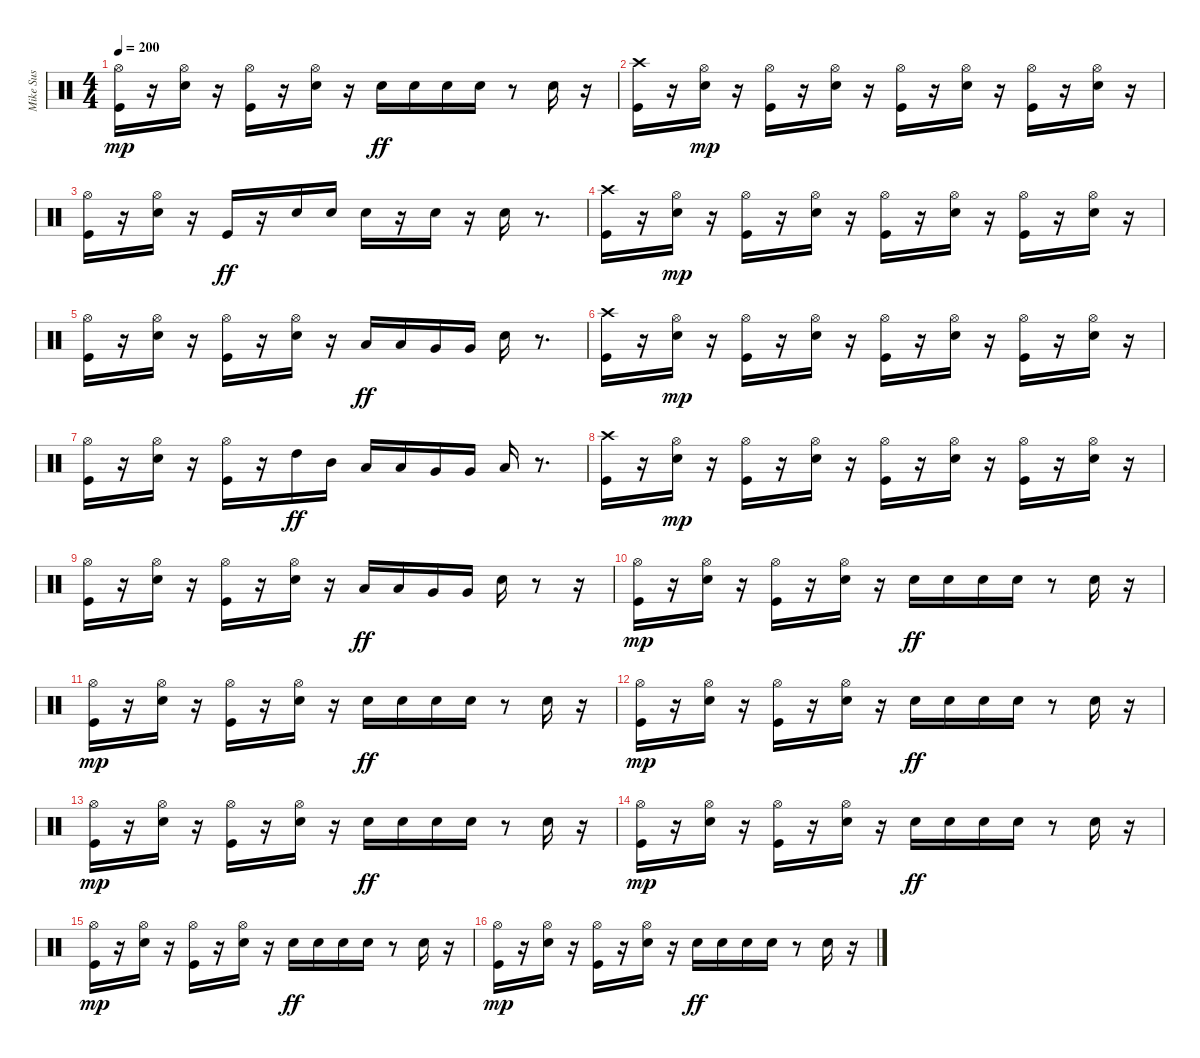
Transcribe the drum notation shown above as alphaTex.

\track ("Mike Sus" "Mike Sus") {instrument percussion}
\staff {score}
\articulation defaults
\ts (4 4)
\tempo 200
\clef neutral
\ks c
("Kick (hit)" "Hi-Hat (open)").16{dy mp} r.16 ("Snare (hit) 2" "Hi-Hat (open)").16 r.16 ("Kick (hit)" "Hi-Hat (open)").16 r.16 ("Snare (hit) 2" "Hi-Hat (open)").16 r.16 "Snare (hit) 2".16{dy ff} "Snare (hit) 2".16 "Snare (hit) 2".16 "Snare (hit) 2".16 r.8 "Snare (hit) 2".16 r.16 |
("Kick (hit)" "Crash high (hit)").16 r.16 ("Snare (hit) 2" "Hi-Hat (open)").16{dy mp} r.16 ("Kick (hit)" "Hi-Hat (open)").16 r.16 ("Snare (hit) 2" "Hi-Hat (open)").16 r.16 ("Kick (hit)" "Hi-Hat (open)").16 r.16 ("Snare (hit) 2" "Hi-Hat (open)").16 r.16 ("Kick (hit)" "Hi-Hat (open)").16 r.16 ("Snare (hit) 2" "Hi-Hat (open)").16 r.16 |
("Kick (hit)" "Hi-Hat (open)").16 r.16 ("Snare (hit) 2" "Hi-Hat (open)").16 r.16 "Kick (hit)".16{dy ff} r.16 "Snare (hit) 2".16 "Snare (hit) 2".16 "Snare (hit) 2".16 r.16 "Snare (hit) 2".16 r.16 "Snare (hit) 2".16 r.8{d} |
("Kick (hit)" "Crash high (hit)").16 r.16 ("Snare (hit) 2" "Hi-Hat (open)").16{dy mp} r.16 ("Kick (hit)" "Hi-Hat (open)").16 r.16 ("Snare (hit) 2" "Hi-Hat (open)").16 r.16 ("Kick (hit)" "Hi-Hat (open)").16 r.16 ("Snare (hit) 2" "Hi-Hat (open)").16 r.16 ("Kick (hit)" "Hi-Hat (open)").16 r.16 ("Snare (hit) 2" "Hi-Hat (open)").16 r.16 |
("Kick (hit)" "Hi-Hat (open)").16 r.16 ("Snare (hit) 2" "Hi-Hat (open)").16 r.16 ("Kick (hit)" "Hi-Hat (open)").16 r.16 ("Snare (hit) 2" "Hi-Hat (open)").16 r.16 "Low Tom (hit)".16{dy ff} "Low Tom (hit)".16 "Very Low Tom (hit)".16 "Very Low Tom (hit)".16 "Snare (hit) 2".16 r.8{d} |
("Kick (hit)" "Crash high (hit)").16 r.16 ("Snare (hit) 2" "Hi-Hat (open)").16{dy mp} r.16 ("Kick (hit)" "Hi-Hat (open)").16 r.16 ("Snare (hit) 2" "Hi-Hat (open)").16 r.16 ("Kick (hit)" "Hi-Hat (open)").16 r.16 ("Snare (hit) 2" "Hi-Hat (open)").16 r.16 ("Kick (hit)" "Hi-Hat (open)").16 r.16 ("Snare (hit) 2" "Hi-Hat (open)").16 r.16 |
("Kick (hit)" "Hi-Hat (open)").16 r.16 ("Snare (hit) 2" "Hi-Hat (open)").16 r.16 ("Kick (hit)" "Hi-Hat (open)").16 r.16 "High Tom (hit)".16{dy ff} "Mid Tom (hit)".16 "Low Tom (hit)".16 "Low Tom (hit)".16 "Very Low Tom (hit)".16 "Very Low Tom (hit)".16 "Low Floor Tom (hit)".16 r.8{d} |
("Kick (hit)" "Crash high (hit)").16 r.16 ("Snare (hit) 2" "Hi-Hat (open)").16{dy mp} r.16 ("Kick (hit)" "Hi-Hat (open)").16 r.16 ("Snare (hit) 2" "Hi-Hat (open)").16 r.16 ("Kick (hit)" "Hi-Hat (open)").16 r.16 ("Snare (hit) 2" "Hi-Hat (open)").16 r.16 ("Kick (hit)" "Hi-Hat (open)").16 r.16 ("Snare (hit) 2" "Hi-Hat (open)").16 r.16 |
("Kick (hit)" "Hi-Hat (open)").16 r.16 ("Snare (hit) 2" "Hi-Hat (open)").16 r.16 ("Kick (hit)" "Hi-Hat (open)").16 r.16 ("Snare (hit) 2" "Hi-Hat (open)").16 r.16 "Low Tom (hit)".16{dy ff} "Low Tom (hit)".16 "Very Low Tom (hit)".16 "Very Low Tom (hit)".16 "Snare (hit) 2".16 r.8 r.16 |
("Kick (hit)" "Hi-Hat (open)").16{dy mp} r.16 ("Snare (hit) 2" "Hi-Hat (open)").16 r.16 ("Kick (hit)" "Hi-Hat (open)").16 r.16 ("Snare (hit) 2" "Hi-Hat (open)").16 r.16 "Snare (hit) 2".16{dy ff} "Snare (hit) 2".16 "Snare (hit) 2".16 "Snare (hit) 2".16 r.8 "Snare (hit) 2".16 r.16 |
("Kick (hit)" "Hi-Hat (open)").16{dy mp} r.16 ("Snare (hit) 2" "Hi-Hat (open)").16 r.16 ("Kick (hit)" "Hi-Hat (open)").16 r.16 ("Snare (hit) 2" "Hi-Hat (open)").16 r.16 "Snare (hit) 2".16{dy ff} "Snare (hit) 2".16 "Snare (hit) 2".16 "Snare (hit) 2".16 r.8 "Snare (hit) 2".16 r.16 |
("Kick (hit)" "Hi-Hat (open)").16{dy mp} r.16 ("Snare (hit) 2" "Hi-Hat (open)").16 r.16 ("Kick (hit)" "Hi-Hat (open)").16 r.16 ("Snare (hit) 2" "Hi-Hat (open)").16 r.16 "Snare (hit) 2".16{dy ff} "Snare (hit) 2".16 "Snare (hit) 2".16 "Snare (hit) 2".16 r.8 "Snare (hit) 2".16 r.16 |
("Kick (hit)" "Hi-Hat (open)").16{dy mp} r.16 ("Snare (hit) 2" "Hi-Hat (open)").16 r.16 ("Kick (hit)" "Hi-Hat (open)").16 r.16 ("Snare (hit) 2" "Hi-Hat (open)").16 r.16 "Snare (hit) 2".16{dy ff} "Snare (hit) 2".16 "Snare (hit) 2".16 "Snare (hit) 2".16 r.8 "Snare (hit) 2".16 r.16 |
("Kick (hit)" "Hi-Hat (open)").16{dy mp} r.16 ("Snare (hit) 2" "Hi-Hat (open)").16 r.16 ("Kick (hit)" "Hi-Hat (open)").16 r.16 ("Snare (hit) 2" "Hi-Hat (open)").16 r.16 "Snare (hit) 2".16{dy ff} "Snare (hit) 2".16 "Snare (hit) 2".16 "Snare (hit) 2".16 r.8 "Snare (hit) 2".16 r.16 |
("Kick (hit)" "Hi-Hat (open)").16{dy mp} r.16 ("Snare (hit) 2" "Hi-Hat (open)").16 r.16 ("Kick (hit)" "Hi-Hat (open)").16 r.16 ("Snare (hit) 2" "Hi-Hat (open)").16 r.16 "Snare (hit) 2".16{dy ff} "Snare (hit) 2".16 "Snare (hit) 2".16 "Snare (hit) 2".16 r.8 "Snare (hit) 2".16 r.16 |
("Kick (hit)" "Hi-Hat (open)").16{dy mp} r.16 ("Snare (hit) 2" "Hi-Hat (open)").16 r.16 ("Kick (hit)" "Hi-Hat (open)").16 r.16 ("Snare (hit) 2" "Hi-Hat (open)").16 r.16 "Snare (hit) 2".16{dy ff} "Snare (hit) 2".16 "Snare (hit) 2".16 "Snare (hit) 2".16 r.8 "Snare (hit) 2".16 r.16
